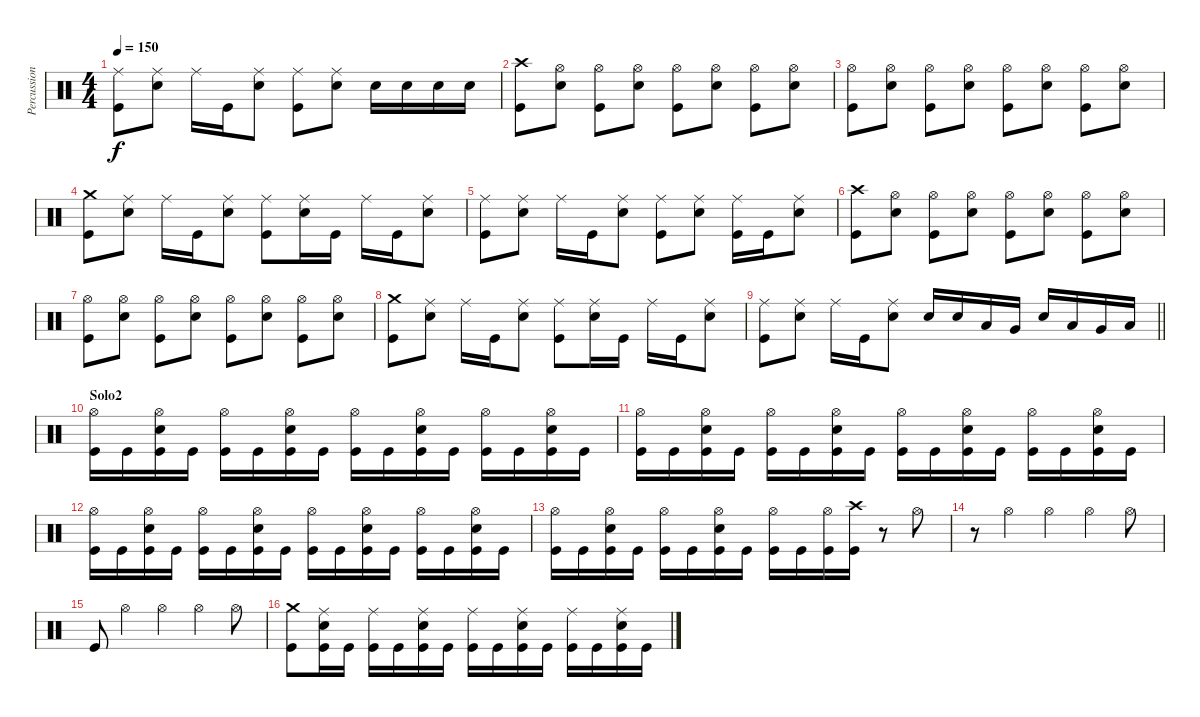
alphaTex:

\track ("Percussion" "Percussion") {instrument percussion}
\staff {score}
\articulation defaults
\ts (4 4)
\tempo 150
\clef neutral
\ks c
("Ride (middle)" "Kick (hit)").8{dy f} ("Ride (middle)" "Snare (hit) 2").8 "Ride (middle)".16 "Kick (hit)".16 ("Ride (middle)" "Snare (hit) 2").8 ("Ride (middle)" "Kick (hit)").8 ("Ride (middle)" "Snare (hit) 2").8 "Snare (hit) 2".16 "Snare (hit) 2".16 "Snare (hit) 2".16 "Snare (hit) 2".16 |
("Crash high (hit)" "Kick (hit)").8 ("Hi-Hat (open)" "Snare (hit) 2").8 ("Hi-Hat (open)" "Kick (hit)").8 ("Hi-Hat (open)" "Snare (hit) 2").8 ("Hi-Hat (open)" "Kick (hit)").8 ("Hi-Hat (open)" "Snare (hit) 2").8 ("Hi-Hat (open)" "Kick (hit)").8 ("Hi-Hat (open)" "Snare (hit) 2").8 |
("Hi-Hat (open)" "Kick (hit)").8 ("Hi-Hat (open)" "Snare (hit) 2").8 ("Hi-Hat (open)" "Kick (hit)").8 ("Hi-Hat (open)" "Snare (hit) 2").8 ("Hi-Hat (open)" "Kick (hit)").8 ("Hi-Hat (open)" "Snare (hit) 2").8 ("Hi-Hat (open)" "Kick (hit)").8 ("Hi-Hat (open)" "Snare (hit) 2").8 |
("Crash medium (hit)" "Kick (hit)").8 ("Ride (middle)" "Snare (hit) 2").8 "Ride (middle)".16 "Kick (hit)".16 ("Ride (middle)" "Snare (hit) 2").8 ("Ride (middle)" "Kick (hit)").8 ("Ride (middle)" "Snare (hit) 2").16 "Kick (hit)".16 "Ride (middle)".16 "Kick (hit)".16 ("Ride (middle)" "Snare (hit) 2").8 |
("Ride (middle)" "Kick (hit)").8 ("Ride (middle)" "Snare (hit) 2").8 "Ride (middle)".16 "Kick (hit)".16 ("Ride (middle)" "Snare (hit) 2").8 ("Ride (middle)" "Kick (hit)").8 ("Ride (middle)" "Snare (hit) 2").8 ("Ride (middle)" "Kick (hit)").16 "Kick (hit)".16 ("Ride (middle)" "Snare (hit) 2").8 |
("Crash high (hit)" "Kick (hit)").8 ("Hi-Hat (open)" "Snare (hit) 2").8 ("Hi-Hat (open)" "Kick (hit)").8 ("Hi-Hat (open)" "Snare (hit) 2").8 ("Hi-Hat (open)" "Kick (hit)").8 ("Hi-Hat (open)" "Snare (hit) 2").8 ("Hi-Hat (open)" "Kick (hit)").8 ("Hi-Hat (open)" "Snare (hit) 2").8 |
("Hi-Hat (open)" "Kick (hit)").8 ("Hi-Hat (open)" "Snare (hit) 2").8 ("Hi-Hat (open)" "Kick (hit)").8 ("Hi-Hat (open)" "Snare (hit) 2").8 ("Hi-Hat (open)" "Kick (hit)").8 ("Hi-Hat (open)" "Snare (hit) 2").8 ("Hi-Hat (open)" "Kick (hit)").8 ("Hi-Hat (open)" "Snare (hit) 2").8 |
("Crash medium (hit)" "Kick (hit)").8 ("Ride (middle)" "Snare (hit) 2").8 "Ride (middle)".16 "Kick (hit)".16 ("Ride (middle)" "Snare (hit) 2").8 ("Ride (middle)" "Kick (hit)").8 ("Ride (middle)" "Snare (hit) 2").16 "Kick (hit)".16 "Ride (middle)".16 "Kick (hit)".16 ("Ride (middle)" "Snare (hit) 2").8 |
\barLineRight lightlight
("Ride (middle)" "Kick (hit)").8 ("Ride (middle)" "Snare (hit) 2").8 "Ride (middle)".16 "Kick (hit)".16 ("Ride (middle)" "Snare (hit) 2").8 "Snare (hit) 2".16 "Snare (hit) 2".16 "Low Tom (hit)".16 "Very Low Tom (hit)".16 "Snare (hit) 2".16 "Low Tom (hit)".16 "Very Low Tom (hit)".16 "Low Floor Tom (hit)".16 |
\section ("" "Solo2")
("Hi-Hat (open)" "Kick (hit)").16 "Kick (hit)".16 ("Hi-Hat (open)" "Snare (hit) 2" "Kick (hit)").16 "Kick (hit)".16 ("Hi-Hat (open)" "Kick (hit)").16 "Kick (hit)".16 ("Hi-Hat (open)" "Snare (hit) 2" "Kick (hit)").16 "Kick (hit)".16 ("Hi-Hat (open)" "Kick (hit)").16 "Kick (hit)".16 ("Hi-Hat (open)" "Snare (hit) 2" "Kick (hit)").16 "Kick (hit)".16 ("Hi-Hat (open)" "Kick (hit)").16 "Kick (hit)".16 ("Hi-Hat (open)" "Snare (hit) 2" "Kick (hit)").16 "Kick (hit)".16 |
("Hi-Hat (open)" "Kick (hit)").16 "Kick (hit)".16 ("Hi-Hat (open)" "Snare (hit) 2" "Kick (hit)").16 "Kick (hit)".16 ("Hi-Hat (open)" "Kick (hit)").16 "Kick (hit)".16 ("Hi-Hat (open)" "Snare (hit) 2" "Kick (hit)").16 "Kick (hit)".16 ("Hi-Hat (open)" "Kick (hit)").16 "Kick (hit)".16 ("Hi-Hat (open)" "Snare (hit) 2" "Kick (hit)").16 "Kick (hit)".16 ("Hi-Hat (open)" "Kick (hit)").16 "Kick (hit)".16 ("Hi-Hat (open)" "Snare (hit) 2" "Kick (hit)").16 "Kick (hit)".16 |
("Hi-Hat (open)" "Kick (hit)").16 "Kick (hit)".16 ("Hi-Hat (open)" "Snare (hit) 2" "Kick (hit)").16 "Kick (hit)".16 ("Hi-Hat (open)" "Kick (hit)").16 "Kick (hit)".16 ("Hi-Hat (open)" "Snare (hit) 2" "Kick (hit)").16 "Kick (hit)".16 ("Hi-Hat (open)" "Kick (hit)").16 "Kick (hit)".16 ("Hi-Hat (open)" "Snare (hit) 2" "Kick (hit)").16 "Kick (hit)".16 ("Hi-Hat (open)" "Kick (hit)").16 "Kick (hit)".16 ("Hi-Hat (open)" "Snare (hit) 2" "Kick (hit)").16 "Kick (hit)".16 |
("Hi-Hat (open)" "Kick (hit)").16 "Kick (hit)".16 ("Hi-Hat (open)" "Snare (hit) 2" "Kick (hit)").16 "Kick (hit)".16 ("Hi-Hat (open)" "Kick (hit)").16 "Kick (hit)".16 ("Hi-Hat (open)" "Snare (hit) 2" "Kick (hit)").16 "Kick (hit)".16 ("Hi-Hat (open)" "Kick (hit)").16 "Kick (hit)".16 ("Hi-Hat (open)" "Kick (hit)").16 ("Crash high (hit)" "Kick (hit)").16 r.8 "Hi-Hat (open)".8 |
r.8 "Hi-Hat (open)".4 "Hi-Hat (open)".4 "Hi-Hat (open)".4 "Hi-Hat (open)".8 |
"Kick (hit)".8 "Hi-Hat (open)".4 "Hi-Hat (open)".4 "Hi-Hat (open)".4 "Hi-Hat (open)".8 |
("Crash medium (hit)" "Kick (hit)").8 ("Ride (middle)" "Snare (hit) 2" "Kick (hit)").16 "Kick (hit)".16 ("Ride (middle)" "Kick (hit)").16 "Kick (hit)".16 ("Ride (middle)" "Snare (hit) 2" "Kick (hit)").16 "Kick (hit)".16 ("Ride (middle)" "Kick (hit)").16 "Kick (hit)".16 ("Ride (middle)" "Snare (hit) 2" "Kick (hit)").16 "Kick (hit)".16 ("Ride (middle)" "Kick (hit)").16 "Kick (hit)".16 ("Ride (middle)" "Snare (hit) 2" "Kick (hit)").16 "Kick (hit)".16
